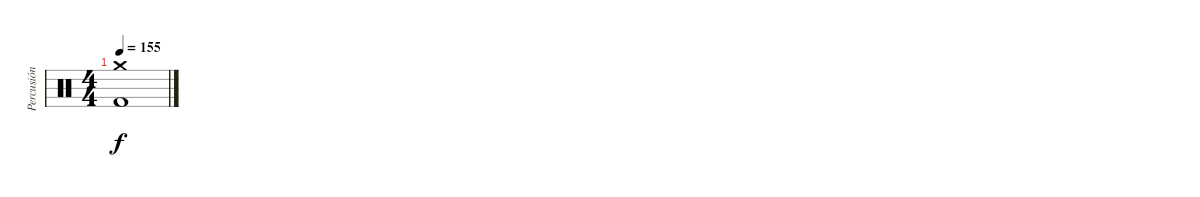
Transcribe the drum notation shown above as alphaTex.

\track ("Percusión" "Percusión") {instrument percussion}
\staff {score}
\articulation defaults
\ts (4 4)
\tempo 155
\clef neutral
\ks c
("Crash medium (hit)" "Kick (hit) 2").1{dy f}
